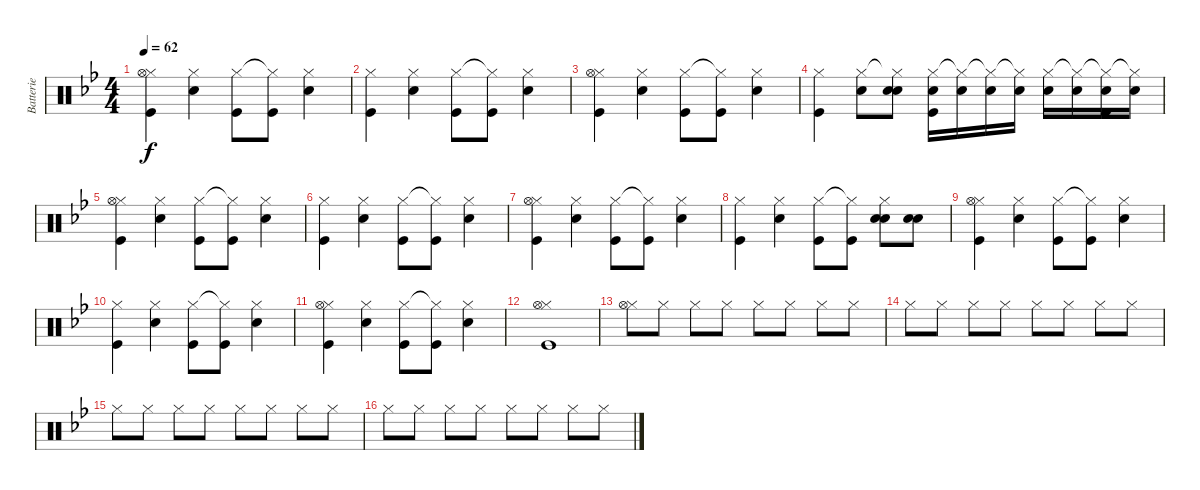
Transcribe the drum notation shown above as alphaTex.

\track ("Batterie" "Batterie") {instrument percussion}
\staff {score}
\articulation defaults
\ts (4 4)
\tempo 62
\clef neutral
\ks bb
("Hi-Hat (closed)" "Hi-Hat (open)" "Kick (hit)").4{dy f} ("Hi-Hat (closed)" "Snare (hit) 2").4 ("Hi-Hat (closed)" "Kick (hit)").8 ("Hi-Hat (closed)"{t} "Kick (hit)").8 ("Hi-Hat (closed)" "Snare (hit) 2").4 |
("Hi-Hat (closed)" "Kick (hit)").4 ("Hi-Hat (closed)" "Snare (hit) 2").4 ("Hi-Hat (closed)" "Kick (hit)").8 ("Hi-Hat (closed)"{t} "Kick (hit)").8 ("Hi-Hat (closed)" "Snare (hit) 2").4 |
("Hi-Hat (closed)" "Hi-Hat (open)" "Kick (hit)").4 ("Hi-Hat (closed)" "Snare (hit) 2").4 ("Hi-Hat (closed)" "Kick (hit)").8 ("Hi-Hat (closed)"{t} "Kick (hit)").8 ("Hi-Hat (closed)" "Snare (hit) 2").4 |
("Hi-Hat (closed)" "Kick (hit)").4 ("Hi-Hat (closed)" "Snare (hit) 2").8 ("Hi-Hat (closed)"{t} "Snare (hit) 2" "Snare (hit) 2").8 ("Hi-Hat (closed)" "Snare (hit) 2" "Kick (hit)").16 ("Hi-Hat (closed)"{t} "Snare (hit) 2").16 ("Hi-Hat (closed)"{t} "Snare (hit) 2").16 ("Hi-Hat (closed)"{t} "Snare (hit) 2").16 ("Hi-Hat (closed)" "Snare (hit) 2").16 ("Hi-Hat (closed)"{t} "Snare (hit) 2").16 ("Hi-Hat (closed)"{t} "Snare (hit) 2" "Kick (hit)").16 ("Hi-Hat (closed)"{t} "Snare (hit) 2").16 |
("Hi-Hat (closed)" "Hi-Hat (open)" "Kick (hit)").4 ("Hi-Hat (closed)" "Snare (hit) 2").4 ("Hi-Hat (closed)" "Kick (hit)").8 ("Hi-Hat (closed)"{t} "Kick (hit)").8 ("Hi-Hat (closed)" "Snare (hit) 2").4 |
("Hi-Hat (closed)" "Kick (hit)").4 ("Hi-Hat (closed)" "Snare (hit) 2").4 ("Hi-Hat (closed)" "Kick (hit)").8 ("Hi-Hat (closed)"{t} "Kick (hit)").8 ("Hi-Hat (closed)" "Snare (hit) 2").4 |
("Hi-Hat (closed)" "Hi-Hat (open)" "Kick (hit)").4 ("Hi-Hat (closed)" "Snare (hit) 2").4 ("Hi-Hat (closed)" "Kick (hit)").8 ("Hi-Hat (closed)"{t} "Kick (hit)").8 ("Hi-Hat (closed)" "Snare (hit) 2").4 |
("Hi-Hat (closed)" "Kick (hit)").4 ("Hi-Hat (closed)" "Snare (hit) 2").4 ("Hi-Hat (closed)" "Kick (hit)").8 ("Hi-Hat (closed)"{t} "Kick (hit)").8 ("Hi-Hat (closed)" "Snare (hit) 2" "Snare (hit) 2").8 ("Snare (hit) 2" "Snare (hit) 2").8 |
("Hi-Hat (closed)" "Hi-Hat (open)" "Kick (hit)").4 ("Hi-Hat (closed)" "Snare (hit) 2").4 ("Hi-Hat (closed)" "Kick (hit)").8 ("Hi-Hat (closed)"{t} "Kick (hit)").8 ("Hi-Hat (closed)" "Snare (hit) 2").4 |
("Hi-Hat (closed)" "Kick (hit)").4 ("Hi-Hat (closed)" "Snare (hit) 2").4 ("Hi-Hat (closed)" "Kick (hit)").8 ("Hi-Hat (closed)"{t} "Kick (hit)").8 ("Hi-Hat (closed)" "Snare (hit) 2").4 |
("Hi-Hat (closed)" "Hi-Hat (open)" "Kick (hit)").4 ("Hi-Hat (closed)" "Snare (hit) 2").4 ("Hi-Hat (closed)" "Kick (hit)").8 ("Hi-Hat (closed)"{t} "Kick (hit)").8 ("Hi-Hat (closed)" "Snare (hit) 2").4 |
("Hi-Hat (closed)" "Hi-Hat (open)" "Kick (hit)").1 |
("Hi-Hat (closed)" "Hi-Hat (open)").8 "Hi-Hat (closed)".8 "Hi-Hat (closed)".8 "Hi-Hat (closed)".8 "Hi-Hat (closed)".8 "Hi-Hat (closed)".8 "Hi-Hat (closed)".8 "Hi-Hat (closed)".8 |
"Hi-Hat (closed)".8 "Hi-Hat (closed)".8 "Hi-Hat (closed)".8 "Hi-Hat (closed)".8 "Hi-Hat (closed)".8 "Hi-Hat (closed)".8 "Hi-Hat (closed)".8 "Hi-Hat (closed)".8 |
"Hi-Hat (closed)".8 "Hi-Hat (closed)".8 "Hi-Hat (closed)".8 "Hi-Hat (closed)".8 "Hi-Hat (closed)".8 "Hi-Hat (closed)".8 "Hi-Hat (closed)".8 "Hi-Hat (closed)".8 |
"Hi-Hat (closed)".8 "Hi-Hat (closed)".8 "Hi-Hat (closed)".8 "Hi-Hat (closed)".8 "Hi-Hat (closed)".8 "Hi-Hat (closed)".8 "Hi-Hat (closed)".8 "Hi-Hat (closed)".8
